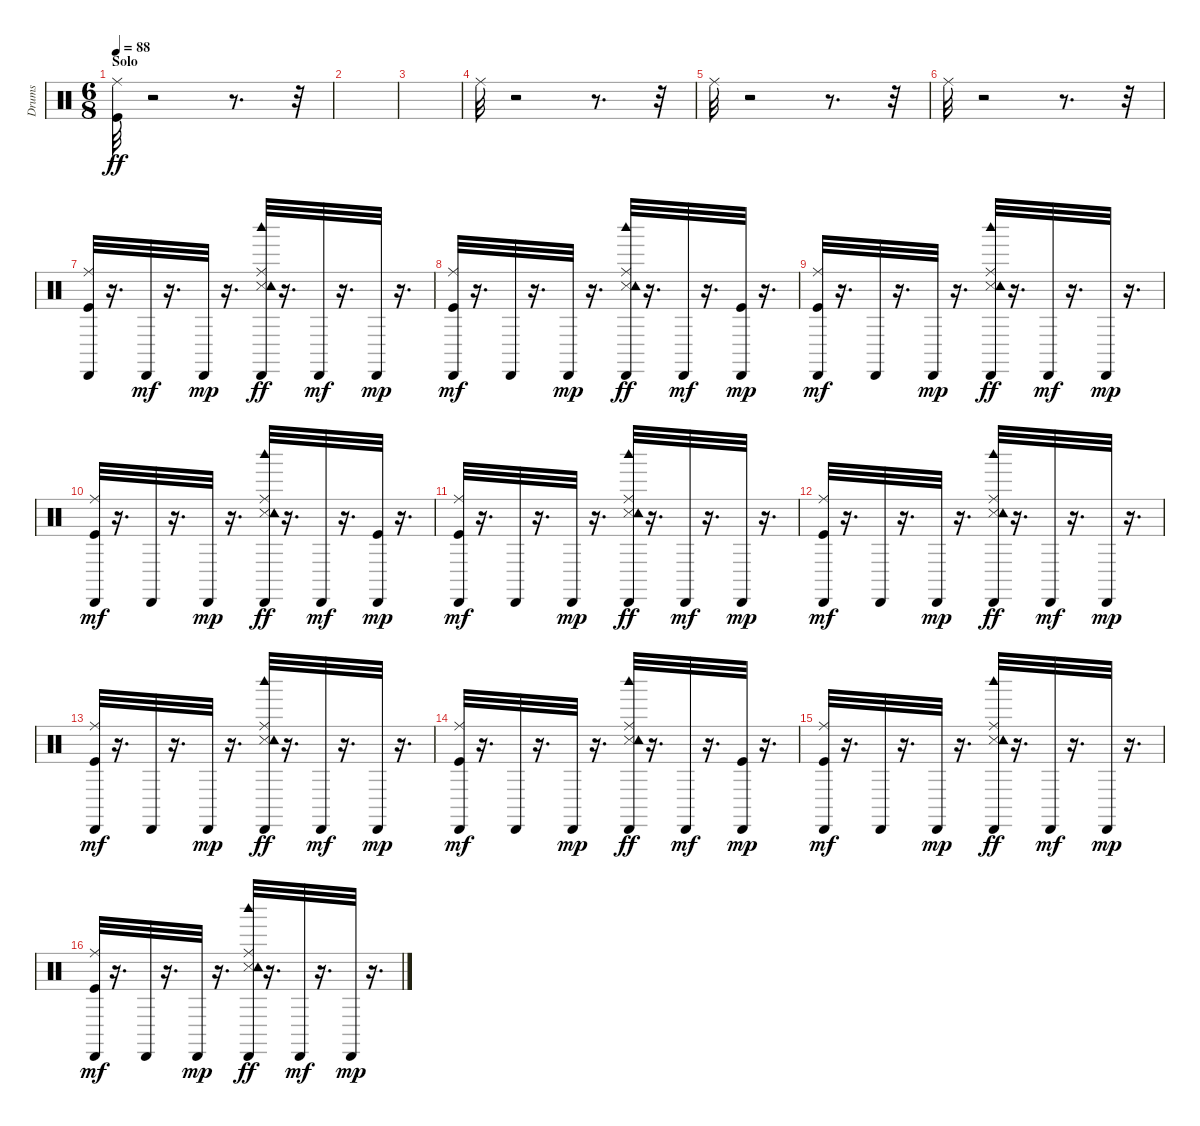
\track ("Drums               " "Drums     ") {instrument percussion}
\staff {score}
\articulation defaults
\ts (6 8)
\section ("" "Solo")
\tempo 88
\clef neutral
\ks c
("Kick (hit)" "Ride (middle)").32{dy ff} r.2 r.8{d} r.32 |
|
|
"Ride (middle)".32 r.2 r.8{d} r.32 |
"Ride (middle)".32 r.2 r.8{d} r.32 |
"Ride (middle)".32 r.2 r.8{d} r.32 |
("Kick (hit)" "Ride (middle)" "Cabasa (hit)").32 r.16{d} "Cabasa (hit)".32{dy mf} r.16{d} "Cabasa (hit)".32{dy mp} r.16{d} ("Snare (side stick) 3" "Ride (middle)" "Tambourine (hit)" "Cabasa (hit)" "Woodblock high (hit)").32{dy ff} r.16{d} "Cabasa (hit)".32{dy mf} r.16{d} "Cabasa (hit)".32{dy mp} r.16{d} |
("Kick (hit)" "Ride (middle)" "Cabasa (hit)").32{dy mf} r.16{d} "Cabasa (hit)".32 r.16{d} "Cabasa (hit)".32{dy mp} r.16{d} ("Snare (side stick) 3" "Ride (middle)" "Tambourine (hit)" "Cabasa (hit)" "Woodblock high (hit)").32{dy ff} r.16{d} "Cabasa (hit)".32{dy mf} r.16{d} ("Kick (hit)" "Cabasa (hit)").32{dy mp} r.16{d} |
("Kick (hit)" "Ride (middle)" "Cabasa (hit)").32{dy mf} r.16{d} "Cabasa (hit)".32 r.16{d} "Cabasa (hit)".32{dy mp} r.16{d} ("Snare (side stick) 3" "Ride (middle)" "Tambourine (hit)" "Cabasa (hit)" "Woodblock high (hit)").32{dy ff} r.16{d} "Cabasa (hit)".32{dy mf} r.16{d} "Cabasa (hit)".32{dy mp} r.16{d} |
("Kick (hit)" "Ride (middle)" "Cabasa (hit)").32{dy mf} r.16{d} "Cabasa (hit)".32 r.16{d} "Cabasa (hit)".32{dy mp} r.16{d} ("Snare (side stick) 3" "Ride (middle)" "Tambourine (hit)" "Cabasa (hit)" "Woodblock high (hit)").32{dy ff} r.16{d} "Cabasa (hit)".32{dy mf} r.16{d} ("Kick (hit)" "Cabasa (hit)").32{dy mp} r.16{d} |
("Kick (hit)" "Ride (middle)" "Cabasa (hit)").32{dy mf} r.16{d} "Cabasa (hit)".32 r.16{d} "Cabasa (hit)".32{dy mp} r.16{d} ("Snare (side stick) 3" "Ride (middle)" "Tambourine (hit)" "Cabasa (hit)" "Woodblock high (hit)").32{dy ff} r.16{d} "Cabasa (hit)".32{dy mf} r.16{d} "Cabasa (hit)".32{dy mp} r.16{d} |
("Kick (hit)" "Ride (middle)" "Cabasa (hit)").32{dy mf} r.16{d} "Cabasa (hit)".32 r.16{d} "Cabasa (hit)".32{dy mp} r.16{d} ("Snare (side stick) 3" "Ride (middle)" "Tambourine (hit)" "Cabasa (hit)" "Woodblock high (hit)").32{dy ff} r.16{d} "Cabasa (hit)".32{dy mf} r.16{d} "Cabasa (hit)".32{dy mp} r.16{d} |
("Kick (hit)" "Ride (middle)" "Cabasa (hit)").32{dy mf} r.16{d} "Cabasa (hit)".32 r.16{d} "Cabasa (hit)".32{dy mp} r.16{d} ("Snare (side stick) 3" "Ride (middle)" "Tambourine (hit)" "Cabasa (hit)" "Woodblock high (hit)").32{dy ff} r.16{d} "Cabasa (hit)".32{dy mf} r.16{d} "Cabasa (hit)".32{dy mp} r.16{d} |
("Kick (hit)" "Ride (middle)" "Cabasa (hit)").32{dy mf} r.16{d} "Cabasa (hit)".32 r.16{d} "Cabasa (hit)".32{dy mp} r.16{d} ("Snare (side stick) 3" "Ride (middle)" "Tambourine (hit)" "Cabasa (hit)" "Woodblock high (hit)").32{dy ff} r.16{d} "Cabasa (hit)".32{dy mf} r.16{d} ("Kick (hit)" "Cabasa (hit)").32{dy mp} r.16{d} |
("Kick (hit)" "Ride (middle)" "Cabasa (hit)").32{dy mf} r.16{d} "Cabasa (hit)".32 r.16{d} "Cabasa (hit)".32{dy mp} r.16{d} ("Snare (side stick) 3" "Ride (middle)" "Tambourine (hit)" "Cabasa (hit)" "Woodblock high (hit)").32{dy ff} r.16{d} "Cabasa (hit)".32{dy mf} r.16{d} "Cabasa (hit)".32{dy mp} r.16{d} |
("Kick (hit)" "Ride (middle)" "Cabasa (hit)").32{dy mf} r.16{d} "Cabasa (hit)".32 r.16{d} "Cabasa (hit)".32{dy mp} r.16{d} ("Snare (side stick) 3" "Ride (middle)" "Tambourine (hit)" "Cabasa (hit)" "Woodblock high (hit)").32{dy ff} r.16{d} "Cabasa (hit)".32{dy mf} r.16{d} "Cabasa (hit)".32{dy mp} r.16{d}
